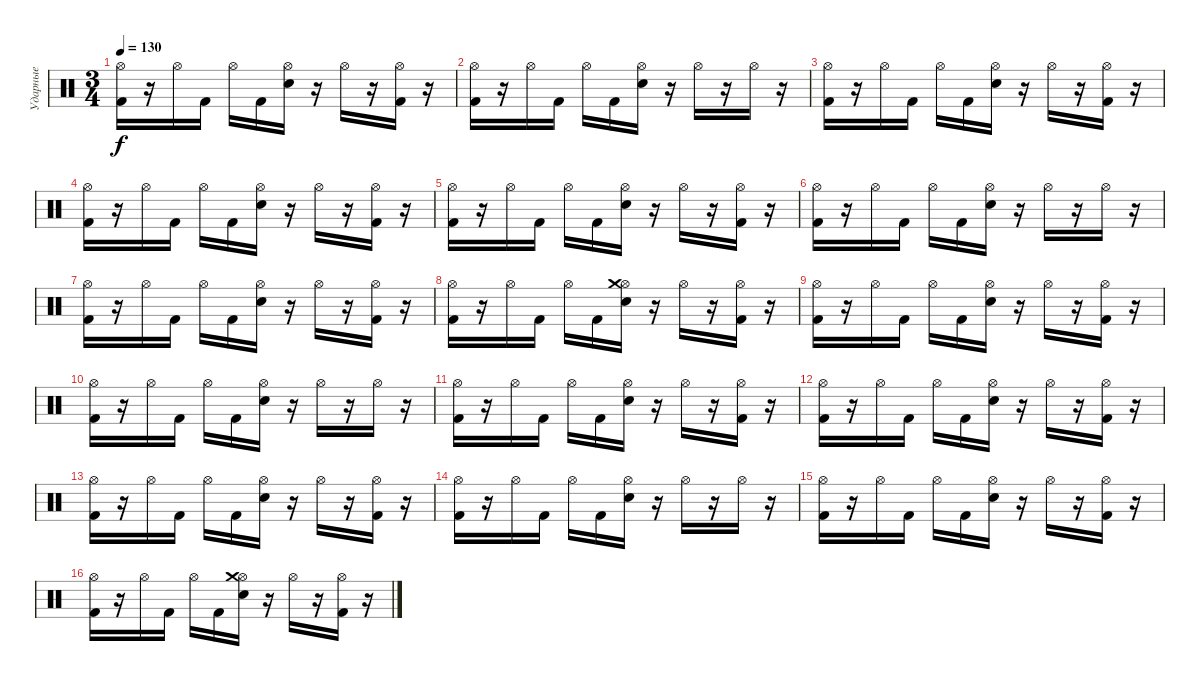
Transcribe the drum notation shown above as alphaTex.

\track ("Ударные" "Ударные") {instrument percussion}
\staff {score}
\articulation defaults
\ts (3 4)
\tempo 130
\clef neutral
\ks c
("Hi-Hat (open)" "Kick (hit) 2").16{dy f} r.16 "Hi-Hat (open)".16 "Kick (hit) 2".16 "Hi-Hat (open)".16 "Kick (hit) 2".16 ("Snare (hit) 2" "Hi-Hat (open)").16 r.16 "Hi-Hat (open)".16 r.16 ("Hi-Hat (open)" "Kick (hit) 2").16 r.16 |
("Hi-Hat (open)" "Kick (hit) 2").16 r.16 "Hi-Hat (open)".16 "Kick (hit) 2".16 "Hi-Hat (open)".16 "Kick (hit) 2".16 ("Snare (hit) 2" "Hi-Hat (open)").16 r.16 "Hi-Hat (open)".16 r.16 "Hi-Hat (open)".16 r.16 |
("Hi-Hat (open)" "Kick (hit) 2").16 r.16 "Hi-Hat (open)".16 "Kick (hit) 2".16 "Hi-Hat (open)".16 "Kick (hit) 2".16 ("Snare (hit) 2" "Hi-Hat (open)").16 r.16 "Hi-Hat (open)".16 r.16 ("Hi-Hat (open)" "Kick (hit) 2").16 r.16 |
("Hi-Hat (open)" "Kick (hit) 2").16 r.16 "Hi-Hat (open)".16 "Kick (hit) 2".16 "Hi-Hat (open)".16 "Kick (hit) 2".16 ("Snare (hit) 2" "Hi-Hat (open)").16 r.16 "Hi-Hat (open)".16 r.16 ("Hi-Hat (open)" "Kick (hit) 2").16 r.16 |
("Hi-Hat (open)" "Kick (hit) 2").16 r.16 "Hi-Hat (open)".16 "Kick (hit) 2".16 "Hi-Hat (open)".16 "Kick (hit) 2".16 ("Snare (hit) 2" "Hi-Hat (open)").16 r.16 "Hi-Hat (open)".16 r.16 ("Hi-Hat (open)" "Kick (hit) 2").16 r.16 |
("Hi-Hat (open)" "Kick (hit) 2").16 r.16 "Hi-Hat (open)".16 "Kick (hit) 2".16 "Hi-Hat (open)".16 "Kick (hit) 2".16 ("Snare (hit) 2" "Hi-Hat (open)").16 r.16 "Hi-Hat (open)".16 r.16 "Hi-Hat (open)".16 r.16 |
("Hi-Hat (open)" "Kick (hit) 2").16 r.16 "Hi-Hat (open)".16 "Kick (hit) 2".16 "Hi-Hat (open)".16 "Kick (hit) 2".16 ("Snare (hit) 2" "Hi-Hat (open)").16 r.16 "Hi-Hat (open)".16 r.16 ("Hi-Hat (open)" "Kick (hit) 2").16 r.16 |
("Hi-Hat (open)" "Kick (hit) 2").16 r.16 "Hi-Hat (open)".16 "Kick (hit) 2".16 "Hi-Hat (open)".16 "Kick (hit) 2".16 ("Snare (hit) 2" "Hi-Hat (open)" "Crash medium (hit)").16 r.16 "Hi-Hat (open)".16 r.16 ("Hi-Hat (open)" "Kick (hit) 2").16 r.16 |
("Hi-Hat (open)" "Kick (hit) 2").16 r.16 "Hi-Hat (open)".16 "Kick (hit) 2".16 "Hi-Hat (open)".16 "Kick (hit) 2".16 ("Snare (hit) 2" "Hi-Hat (open)").16 r.16 "Hi-Hat (open)".16 r.16 ("Hi-Hat (open)" "Kick (hit) 2").16 r.16 |
("Hi-Hat (open)" "Kick (hit) 2").16 r.16 "Hi-Hat (open)".16 "Kick (hit) 2".16 "Hi-Hat (open)".16 "Kick (hit) 2".16 ("Snare (hit) 2" "Hi-Hat (open)").16 r.16 "Hi-Hat (open)".16 r.16 "Hi-Hat (open)".16 r.16 |
("Hi-Hat (open)" "Kick (hit) 2").16 r.16 "Hi-Hat (open)".16 "Kick (hit) 2".16 "Hi-Hat (open)".16 "Kick (hit) 2".16 ("Snare (hit) 2" "Hi-Hat (open)").16 r.16 "Hi-Hat (open)".16 r.16 ("Hi-Hat (open)" "Kick (hit) 2").16 r.16 |
("Hi-Hat (open)" "Kick (hit) 2").16 r.16 "Hi-Hat (open)".16 "Kick (hit) 2".16 "Hi-Hat (open)".16 "Kick (hit) 2".16 ("Snare (hit) 2" "Hi-Hat (open)").16 r.16 "Hi-Hat (open)".16 r.16 ("Hi-Hat (open)" "Kick (hit) 2").16 r.16 |
("Hi-Hat (open)" "Kick (hit) 2").16 r.16 "Hi-Hat (open)".16 "Kick (hit) 2".16 "Hi-Hat (open)".16 "Kick (hit) 2".16 ("Snare (hit) 2" "Hi-Hat (open)").16 r.16 "Hi-Hat (open)".16 r.16 ("Hi-Hat (open)" "Kick (hit) 2").16 r.16 |
("Hi-Hat (open)" "Kick (hit) 2").16 r.16 "Hi-Hat (open)".16 "Kick (hit) 2".16 "Hi-Hat (open)".16 "Kick (hit) 2".16 ("Snare (hit) 2" "Hi-Hat (open)").16 r.16 "Hi-Hat (open)".16 r.16 "Hi-Hat (open)".16 r.16 |
("Hi-Hat (open)" "Kick (hit) 2").16 r.16 "Hi-Hat (open)".16 "Kick (hit) 2".16 "Hi-Hat (open)".16 "Kick (hit) 2".16 ("Snare (hit) 2" "Hi-Hat (open)").16 r.16 "Hi-Hat (open)".16 r.16 ("Hi-Hat (open)" "Kick (hit) 2").16 r.16 |
("Hi-Hat (open)" "Kick (hit) 2").16 r.16 "Hi-Hat (open)".16 "Kick (hit) 2".16 "Hi-Hat (open)".16 "Kick (hit) 2".16 ("Snare (hit) 2" "Hi-Hat (open)" "Crash medium (hit)").16 r.16 "Hi-Hat (open)".16 r.16 ("Hi-Hat (open)" "Kick (hit) 2").16 r.16
